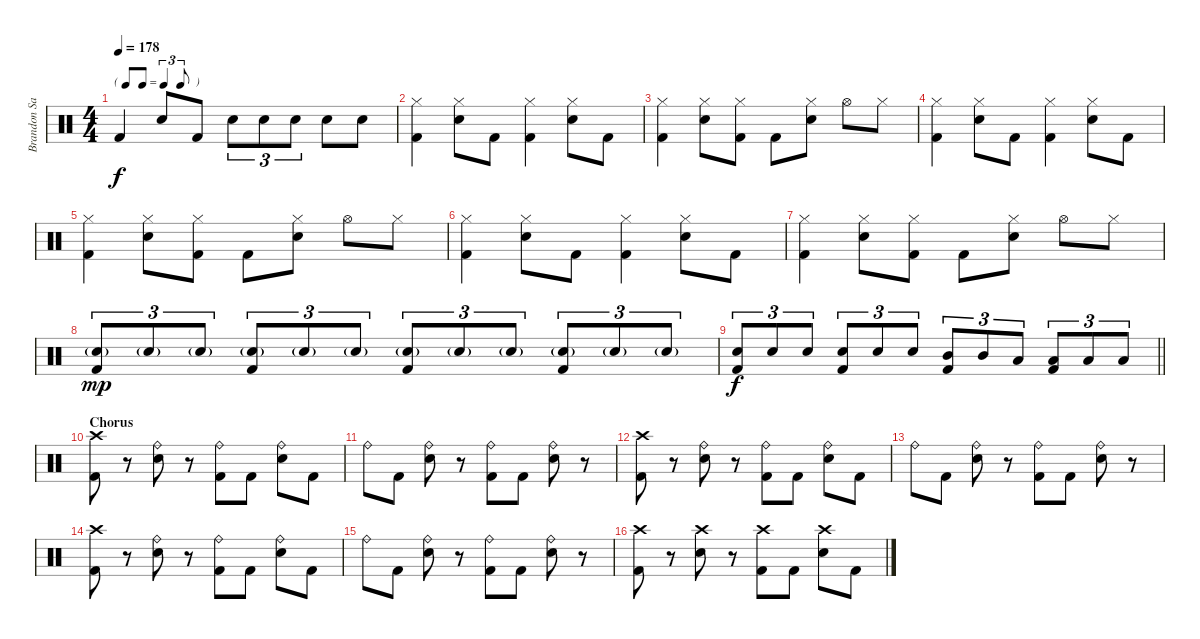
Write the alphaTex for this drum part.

\track ("Brandon Saller" "Brandon Sa") {instrument percussion}
\staff {score}
\articulation defaults
\ts (4 4)
\tf triplet8th
\tempo 178
\clef neutral
\ks c "Kick (hit) 2".4{dy f} "Electric Snare (hit)".8 "Kick (hit) 2".8 "Electric Snare (hit)".8{tu (3 2)} "Electric Snare (hit)".8{tu (3 2)} "Electric Snare (hit)".8{tu (3 2)} "Electric Snare (hit)".8 "Electric Snare (hit)".8
|
("Hi-Hat (closed)" "Kick (hit) 2").4 ("Hi-Hat (closed)" "Electric Snare (hit)").8 "Kick (hit) 2".8 ("Hi-Hat (closed)" "Kick (hit) 2").4 ("Hi-Hat (closed)" "Electric Snare (hit)").8 "Kick (hit) 2".8 |
("Hi-Hat (closed)" "Kick (hit) 2").4 ("Hi-Hat (closed)" "Electric Snare (hit)").8 ("Hi-Hat (closed)" "Kick (hit) 2").8 "Kick (hit) 2".8 ("Hi-Hat (closed)" "Electric Snare (hit)").8 "Hi-Hat (open)".8 "Hi-Hat (closed)".8 |
("Hi-Hat (closed)" "Kick (hit) 2").4 ("Hi-Hat (closed)" "Electric Snare (hit)").8 "Kick (hit) 2".8 ("Hi-Hat (closed)" "Kick (hit) 2").4 ("Hi-Hat (closed)" "Electric Snare (hit)").8 "Kick (hit) 2".8 |
("Hi-Hat (closed)" "Kick (hit) 2").4 ("Hi-Hat (closed)" "Electric Snare (hit)").8 ("Hi-Hat (closed)" "Kick (hit) 2").8 "Kick (hit) 2".8 ("Hi-Hat (closed)" "Electric Snare (hit)").8 "Hi-Hat (open)".8 "Hi-Hat (closed)".8 |
("Hi-Hat (closed)" "Kick (hit) 2").4 ("Hi-Hat (closed)" "Electric Snare (hit)").8 "Kick (hit) 2".8 ("Hi-Hat (closed)" "Kick (hit) 2").4 ("Hi-Hat (closed)" "Electric Snare (hit)").8 "Kick (hit) 2".8 |
("Hi-Hat (closed)" "Kick (hit) 2").4 ("Hi-Hat (closed)" "Electric Snare (hit)").8 ("Hi-Hat (closed)" "Kick (hit) 2").8 "Kick (hit) 2".8 ("Hi-Hat (closed)" "Electric Snare (hit)").8 "Hi-Hat (open)".8 "Hi-Hat (closed)".8 |
("Electric Snare (hit)"{g} "Kick (hit) 2").8{tu (3 2) dy mp} "Electric Snare (hit)"{g}.8{tu (3 2)} "Electric Snare (hit)"{g}.8{tu (3 2)} ("Electric Snare (hit)"{g} "Kick (hit) 2").8{tu (3 2)} "Electric Snare (hit)"{g}.8{tu (3 2)} "Electric Snare (hit)"{g}.8{tu (3 2)} ("Electric Snare (hit)"{g} "Kick (hit) 2").8{tu (3 2)} "Electric Snare (hit)"{g}.8{tu (3 2)} "Electric Snare (hit)"{g}.8{tu (3 2)} ("Electric Snare (hit)"{g} "Kick (hit) 2").8{tu (3 2)} "Electric Snare (hit)"{g}.8{tu (3 2)} "Electric Snare (hit)"{g}.8{tu (3 2)} |
\barLineRight lightlight
("Electric Snare (hit)" "Kick (hit) 2").8{tu (3 2) dy f} "Electric Snare (hit)".8{tu (3 2)} "Electric Snare (hit)".8{tu (3 2)} ("Electric Snare (hit)" "Kick (hit) 2").8{tu (3 2)} "Electric Snare (hit)".8{tu (3 2)} "Electric Snare (hit)".8{tu (3 2)} ("Mid Tom (hit)" "Kick (hit) 2").8{tu (3 2)} "Mid Tom (hit)".8{tu (3 2)} "Low Tom (hit)".8{tu (3 2)} ("Low Tom (hit)" "Kick (hit) 2").8{tu (3 2)} "Low Floor Tom (hit)".8{tu (3 2)} "Low Floor Tom (hit)".8{tu (3 2)} |
\section ("" "Chorus")
("Crash high (hit)" "Kick (hit) 2").8 r.8 ("Ride (bell)" "Electric Snare (hit)").8 r.8 ("Ride (bell)" "Kick (hit) 2").8 "Kick (hit) 2".8 ("Ride (bell)" "Electric Snare (hit)").8 "Kick (hit) 2".8 |
"Ride (bell)".8 "Kick (hit) 2".8 ("Ride (bell)" "Electric Snare (hit)").8 r.8 ("Ride (bell)" "Kick (hit) 2").8 "Kick (hit) 2".8 ("Ride (bell)" "Electric Snare (hit)").8 r.8 |
("Crash high (hit)" "Kick (hit) 2").8 r.8 ("Ride (bell)" "Electric Snare (hit)").8 r.8 ("Ride (bell)" "Kick (hit) 2").8 "Kick (hit) 2".8 ("Ride (bell)" "Electric Snare (hit)").8 "Kick (hit) 2".8 |
"Ride (bell)".8 "Kick (hit) 2".8 ("Ride (bell)" "Electric Snare (hit)").8 r.8 ("Ride (bell)" "Kick (hit) 2").8 "Kick (hit) 2".8 ("Ride (bell)" "Electric Snare (hit)").8 r.8 |
("Crash high (hit)" "Kick (hit) 2").8 r.8 ("Ride (bell)" "Electric Snare (hit)").8 r.8 ("Ride (bell)" "Kick (hit) 2").8 "Kick (hit) 2".8 ("Ride (bell)" "Electric Snare (hit)").8 "Kick (hit) 2".8 |
"Ride (bell)".8 "Kick (hit) 2".8 ("Ride (bell)" "Electric Snare (hit)").8 r.8 ("Ride (bell)" "Kick (hit) 2").8 "Kick (hit) 2".8 ("Ride (bell)" "Electric Snare (hit)").8 r.8 |
("Crash high (hit)" "Kick (hit) 2").8 r.8 ("Crash high (hit)" "Electric Snare (hit)").8 r.8 ("Crash high (hit)" "Kick (hit) 2").8 "Kick (hit) 2".8 ("Crash high (hit)" "Electric Snare (hit)").8 "Kick (hit) 2".8
